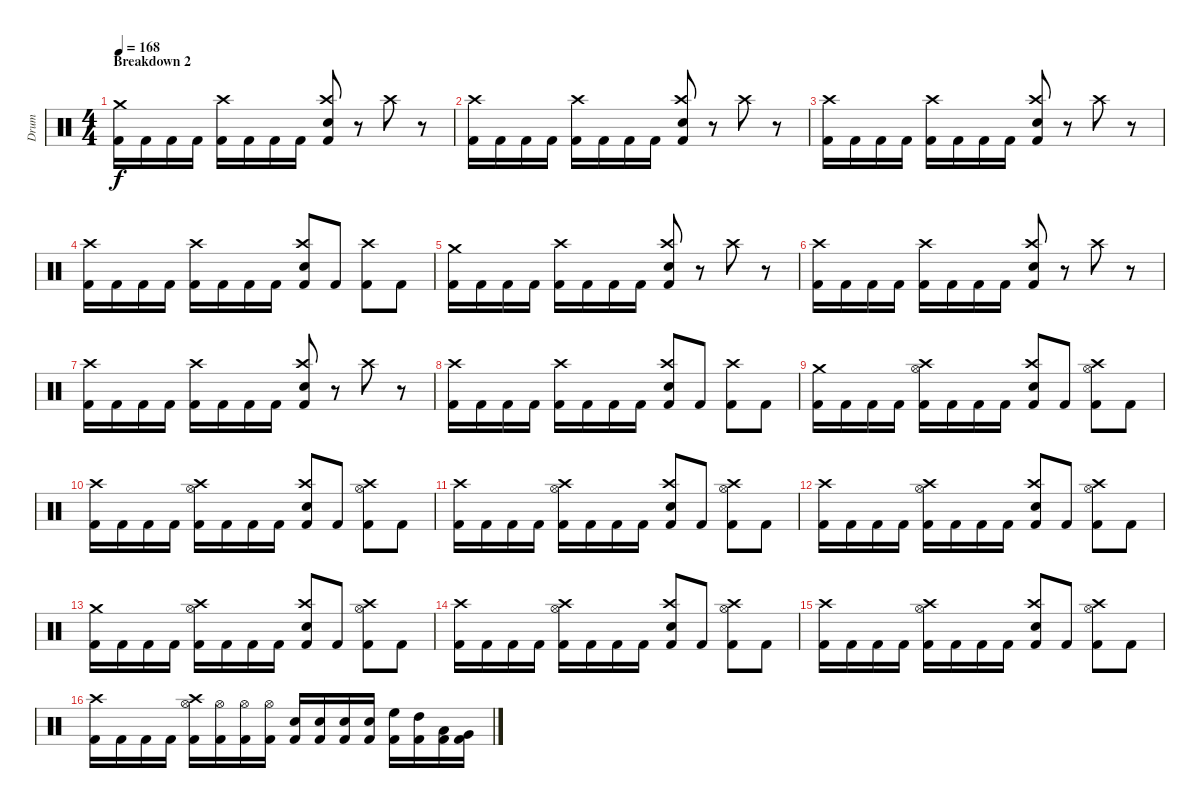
\track ("Drum" "Drum") {instrument percussion}
\staff {score}
\articulation defaults
\ts (4 4)
\section ("" "Breakdown 2")
\tempo 168
\clef neutral
\ks c
("Crash medium (hit)" "Kick (hit) 2").16{dy f} "Kick (hit) 2".16 "Kick (hit) 2".16 "Kick (hit) 2".16 ("Crash high (hit)" "Kick (hit) 2").16 "Kick (hit) 2".16 "Kick (hit) 2".16 "Kick (hit) 2".16 ("Crash high (hit)" "Kick (hit) 2" "Electric Snare (hit)").8 r.8 "Crash high (hit)".8 r.8 |
("Crash high (hit)" "Kick (hit) 2").16 "Kick (hit) 2".16 "Kick (hit) 2".16 "Kick (hit) 2".16 ("Crash high (hit)" "Kick (hit) 2").16 "Kick (hit) 2".16 "Kick (hit) 2".16 "Kick (hit) 2".16 ("Crash high (hit)" "Kick (hit) 2" "Electric Snare (hit)").8 r.8 "Crash high (hit)".8 r.8 |
("Crash high (hit)" "Kick (hit) 2").16 "Kick (hit) 2".16 "Kick (hit) 2".16 "Kick (hit) 2".16 ("Crash high (hit)" "Kick (hit) 2").16 "Kick (hit) 2".16 "Kick (hit) 2".16 "Kick (hit) 2".16 ("Crash high (hit)" "Kick (hit) 2" "Electric Snare (hit)").8 r.8 "Crash high (hit)".8 r.8 |
("Crash high (hit)" "Kick (hit) 2").16 "Kick (hit) 2".16 "Kick (hit) 2".16 "Kick (hit) 2".16 ("Crash high (hit)" "Kick (hit) 2").16 "Kick (hit) 2".16 "Kick (hit) 2".16 "Kick (hit) 2".16 ("Crash high (hit)" "Kick (hit) 2" "Electric Snare (hit)").8 "Kick (hit) 2".8 ("Crash high (hit)" "Kick (hit) 2").8 "Kick (hit) 2".8 |
("Crash medium (hit)" "Kick (hit) 2").16 "Kick (hit) 2".16 "Kick (hit) 2".16 "Kick (hit) 2".16 ("Crash high (hit)" "Kick (hit) 2").16 "Kick (hit) 2".16 "Kick (hit) 2".16 "Kick (hit) 2".16 ("Crash high (hit)" "Kick (hit) 2" "Electric Snare (hit)").8 r.8 "Crash high (hit)".8 r.8 |
("Crash high (hit)" "Kick (hit) 2").16 "Kick (hit) 2".16 "Kick (hit) 2".16 "Kick (hit) 2".16 ("Crash high (hit)" "Kick (hit) 2").16 "Kick (hit) 2".16 "Kick (hit) 2".16 "Kick (hit) 2".16 ("Crash high (hit)" "Kick (hit) 2" "Electric Snare (hit)").8 r.8 "Crash high (hit)".8 r.8 |
("Crash high (hit)" "Kick (hit) 2").16 "Kick (hit) 2".16 "Kick (hit) 2".16 "Kick (hit) 2".16 ("Crash high (hit)" "Kick (hit) 2").16 "Kick (hit) 2".16 "Kick (hit) 2".16 "Kick (hit) 2".16 ("Crash high (hit)" "Kick (hit) 2" "Electric Snare (hit)").8 r.8 "Crash high (hit)".8 r.8 |
("Crash high (hit)" "Kick (hit) 2").16 "Kick (hit) 2".16 "Kick (hit) 2".16 "Kick (hit) 2".16 ("Crash high (hit)" "Kick (hit) 2").16 "Kick (hit) 2".16 "Kick (hit) 2".16 "Kick (hit) 2".16 ("Crash high (hit)" "Kick (hit) 2" "Electric Snare (hit)").8 "Kick (hit) 2".8 ("Crash high (hit)" "Kick (hit) 2").8 "Kick (hit) 2".8 |
("Crash medium (hit)" "Kick (hit) 2").16 "Kick (hit) 2".16 "Kick (hit) 2".16 "Kick (hit) 2".16 ("Hi-Hat (open)" "Crash high (hit)" "Kick (hit) 2").16 "Kick (hit) 2".16 "Kick (hit) 2".16 "Kick (hit) 2".16 ("Crash high (hit)" "Kick (hit) 2" "Electric Snare (hit)").8 "Kick (hit) 2".8 ("Hi-Hat (open)" "Crash high (hit)" "Kick (hit) 2").8 "Kick (hit) 2".8 |
("Crash high (hit)" "Kick (hit) 2").16 "Kick (hit) 2".16 "Kick (hit) 2".16 "Kick (hit) 2".16 ("Hi-Hat (open)" "Crash high (hit)" "Kick (hit) 2").16 "Kick (hit) 2".16 "Kick (hit) 2".16 "Kick (hit) 2".16 ("Crash high (hit)" "Kick (hit) 2" "Electric Snare (hit)").8 "Kick (hit) 2".8 ("Hi-Hat (open)" "Crash high (hit)" "Kick (hit) 2").8 "Kick (hit) 2".8 |
("Crash high (hit)" "Kick (hit) 2").16 "Kick (hit) 2".16 "Kick (hit) 2".16 "Kick (hit) 2".16 ("Hi-Hat (open)" "Crash high (hit)" "Kick (hit) 2").16 "Kick (hit) 2".16 "Kick (hit) 2".16 "Kick (hit) 2".16 ("Crash high (hit)" "Kick (hit) 2" "Electric Snare (hit)").8 "Kick (hit) 2".8 ("Hi-Hat (open)" "Crash high (hit)" "Kick (hit) 2").8 "Kick (hit) 2".8 |
("Crash high (hit)" "Kick (hit) 2").16 "Kick (hit) 2".16 "Kick (hit) 2".16 "Kick (hit) 2".16 ("Hi-Hat (open)" "Crash high (hit)" "Kick (hit) 2").16 "Kick (hit) 2".16 "Kick (hit) 2".16 "Kick (hit) 2".16 ("Crash high (hit)" "Kick (hit) 2" "Electric Snare (hit)").8 "Kick (hit) 2".8 ("Hi-Hat (open)" "Crash high (hit)" "Kick (hit) 2").8 "Kick (hit) 2".8 |
("Crash medium (hit)" "Kick (hit) 2").16 "Kick (hit) 2".16 "Kick (hit) 2".16 "Kick (hit) 2".16 ("Hi-Hat (open)" "Crash high (hit)" "Kick (hit) 2").16 "Kick (hit) 2".16 "Kick (hit) 2".16 "Kick (hit) 2".16 ("Crash high (hit)" "Kick (hit) 2" "Electric Snare (hit)").8 "Kick (hit) 2".8 ("Hi-Hat (open)" "Crash high (hit)" "Kick (hit) 2").8 "Kick (hit) 2".8 |
("Crash high (hit)" "Kick (hit) 2").16 "Kick (hit) 2".16 "Kick (hit) 2".16 "Kick (hit) 2".16 ("Hi-Hat (open)" "Crash high (hit)" "Kick (hit) 2").16 "Kick (hit) 2".16 "Kick (hit) 2".16 "Kick (hit) 2".16 ("Crash high (hit)" "Kick (hit) 2" "Electric Snare (hit)").8 "Kick (hit) 2".8 ("Hi-Hat (open)" "Crash high (hit)" "Kick (hit) 2").8 "Kick (hit) 2".8 |
("Crash high (hit)" "Kick (hit) 2").16 "Kick (hit) 2".16 "Kick (hit) 2".16 "Kick (hit) 2".16 ("Hi-Hat (open)" "Crash high (hit)" "Kick (hit) 2").16 "Kick (hit) 2".16 "Kick (hit) 2".16 "Kick (hit) 2".16 ("Crash high (hit)" "Kick (hit) 2" "Electric Snare (hit)").8 "Kick (hit) 2".8 ("Hi-Hat (open)" "Crash high (hit)" "Kick (hit) 2").8 "Kick (hit) 2".8 |
("Crash high (hit)" "Kick (hit) 2").16 "Kick (hit) 2".16 "Kick (hit) 2".16 "Kick (hit) 2".16 ("Hi-Hat (open)" "Crash high (hit)" "Kick (hit) 2").16 ("Hi-Hat (open)" "Kick (hit) 2").16 ("Hi-Hat (open)" "Kick (hit) 2").16 ("Hi-Hat (open)" "Kick (hit) 2").16 ("Electric Snare (hit)" "Kick (hit) 2").16 ("Electric Snare (hit)" "Kick (hit) 2").16 ("Electric Snare (hit)" "Kick (hit) 2").16 ("Electric Snare (hit)" "Kick (hit) 2").16 ("High Floor Tom (hit)" "Kick (hit) 2").16 ("High Tom (hit)" "Kick (hit) 2").16 ("Low Tom (hit)" "Kick (hit) 2").16 ("Very Low Tom (hit)" "Kick (hit) 2").16
